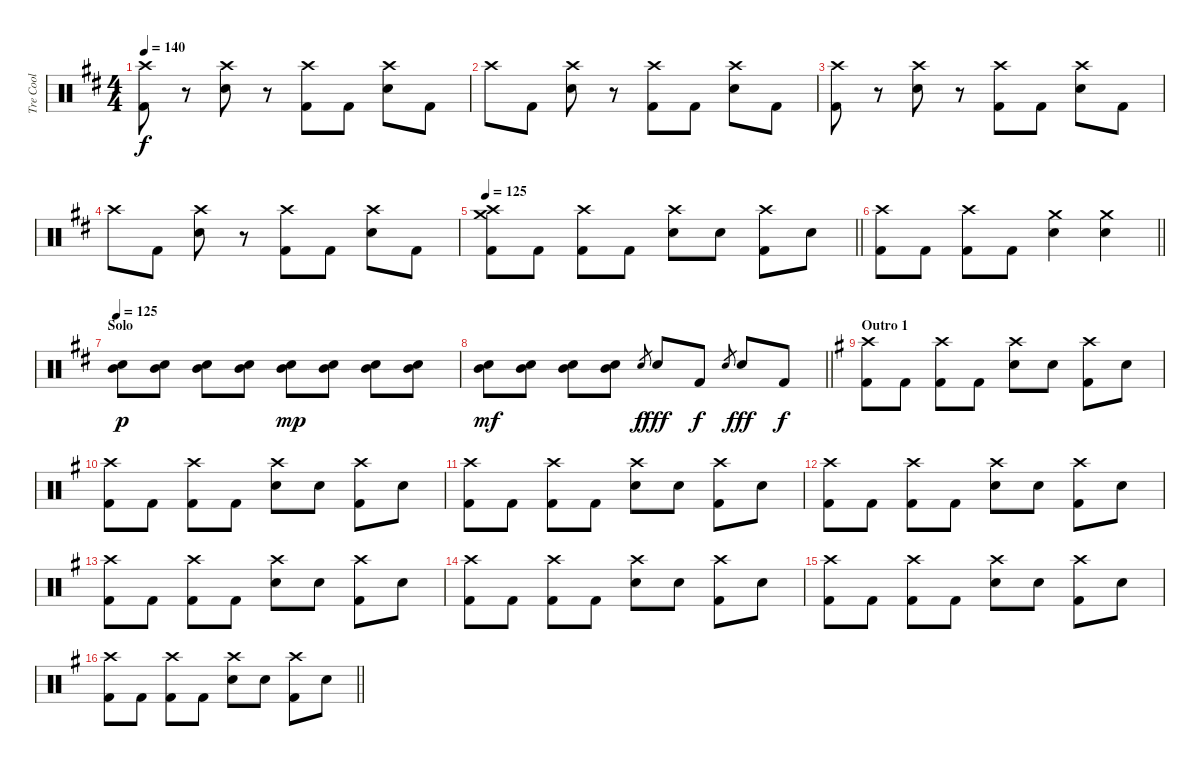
\track ("Tre Cool" "Tre Cool") {instrument percussion}
\staff {score}
\articulation defaults
\ts (4 4)
\tempo 140
\clef neutral
\ks d
("Crash high (hit)" "Kick (hit) 2").8{dy f} r.8 ("Crash high (hit)" "Snare (hit) 2").8 r.8 ("Crash high (hit)" "Kick (hit) 2").8 "Kick (hit) 2".8 ("Crash high (hit)" "Snare (hit) 2").8 "Kick (hit) 2".8 |
"Crash high (hit)".8 "Kick (hit) 2".8 ("Crash high (hit)" "Snare (hit) 2").8 r.8 ("Crash high (hit)" "Kick (hit) 2").8 "Kick (hit) 2".8 ("Crash high (hit)" "Snare (hit) 2").8 "Kick (hit) 2".8 |
("Crash high (hit)" "Kick (hit) 2").8 r.8 ("Crash high (hit)" "Snare (hit) 2").8 r.8 ("Crash high (hit)" "Kick (hit) 2").8 "Kick (hit) 2".8 ("Crash high (hit)" "Snare (hit) 2").8 "Kick (hit) 2".8 |
"Crash high (hit)".8 "Kick (hit) 2".8 ("Crash high (hit)" "Snare (hit) 2").8 r.8 ("Crash high (hit)" "Kick (hit) 2").8 "Kick (hit) 2".8 ("Crash high (hit)" "Snare (hit) 2").8 "Kick (hit) 2".8 |
\tempo 125
\barLineRight lightlight
("Crash high (hit)" "Crash medium (hit)" "Kick (hit) 2").8 "Kick (hit) 2".8 ("Crash high (hit)" "Kick (hit) 2").8 "Kick (hit) 2".8 ("Crash high (hit)" "Electric Snare (hit)").8 "Electric Snare (hit)".8 ("Crash high (hit)" "Kick (hit) 2").8 "Electric Snare (hit)".8 |
\barLineRight lightlight
("Crash high (hit)" "Kick (hit) 2").8 "Kick (hit) 2".8 ("Crash high (hit)" "Kick (hit) 2").8 "Kick (hit) 2".8 ("Crash medium (hit)" "Electric Snare (hit)").4 ("Crash medium (hit)" "Electric Snare (hit)").4 |
\section ("" "Solo")
\tempo 125
("Mid Tom (hit)" "Electric Snare (hit)").8{dy p} ("Mid Tom (hit)" "Electric Snare (hit)").8 ("Mid Tom (hit)" "Electric Snare (hit)").8 ("Mid Tom (hit)" "Electric Snare (hit)").8 ("Mid Tom (hit)" "Electric Snare (hit)").8{dy mp} ("Mid Tom (hit)" "Electric Snare (hit)").8 ("Mid Tom (hit)" "Electric Snare (hit)").8 ("Mid Tom (hit)" "Electric Snare (hit)").8 |
\barLineRight lightlight
("Mid Tom (hit)" "Electric Snare (hit)").8{dy mf} ("Mid Tom (hit)" "Electric Snare (hit)").8 ("Mid Tom (hit)" "Electric Snare (hit)").8 ("Mid Tom (hit)" "Electric Snare (hit)").8 "Electric Snare (hit)"{h}.8{gr dy f} "Electric Snare (hit)".8{dy fff} "Kick (hit) 2".8{dy f} "Electric Snare (hit)"{h}.8{gr} "Electric Snare (hit)".8{dy fff} "Kick (hit) 2".8{dy f} |
\section ("" "Outro 1")
\ks g
("Crash high (hit)" "Kick (hit) 2").8 "Kick (hit) 2".8 ("Crash high (hit)" "Kick (hit) 2").8 "Kick (hit) 2".8 ("Crash high (hit)" "Electric Snare (hit)").8 "Electric Snare (hit)".8 ("Crash high (hit)" "Kick (hit) 2").8 "Electric Snare (hit)".8 |
("Crash high (hit)" "Kick (hit) 2").8 "Kick (hit) 2".8 ("Crash high (hit)" "Kick (hit) 2").8 "Kick (hit) 2".8 ("Crash high (hit)" "Electric Snare (hit)").8 "Electric Snare (hit)".8 ("Crash high (hit)" "Kick (hit) 2").8 "Electric Snare (hit)".8 |
("Crash high (hit)" "Kick (hit) 2").8 "Kick (hit) 2".8 ("Crash high (hit)" "Kick (hit) 2").8 "Kick (hit) 2".8 ("Crash high (hit)" "Electric Snare (hit)").8 "Electric Snare (hit)".8 ("Crash high (hit)" "Kick (hit) 2").8 "Electric Snare (hit)".8 |
("Crash high (hit)" "Kick (hit) 2").8 "Kick (hit) 2".8 ("Crash high (hit)" "Kick (hit) 2").8 "Kick (hit) 2".8 ("Crash high (hit)" "Electric Snare (hit)").8 "Electric Snare (hit)".8 ("Crash high (hit)" "Kick (hit) 2").8 "Electric Snare (hit)".8 |
("Crash high (hit)" "Kick (hit) 2").8 "Kick (hit) 2".8 ("Crash high (hit)" "Kick (hit) 2").8 "Kick (hit) 2".8 ("Crash high (hit)" "Electric Snare (hit)").8 "Electric Snare (hit)".8 ("Crash high (hit)" "Kick (hit) 2").8 "Electric Snare (hit)".8 |
("Crash high (hit)" "Kick (hit) 2").8 "Kick (hit) 2".8 ("Crash high (hit)" "Kick (hit) 2").8 "Kick (hit) 2".8 ("Crash high (hit)" "Electric Snare (hit)").8 "Electric Snare (hit)".8 ("Crash high (hit)" "Kick (hit) 2").8 "Electric Snare (hit)".8 |
("Crash high (hit)" "Kick (hit) 2").8 "Kick (hit) 2".8 ("Crash high (hit)" "Kick (hit) 2").8 "Kick (hit) 2".8 ("Crash high (hit)" "Electric Snare (hit)").8 "Electric Snare (hit)".8 ("Crash high (hit)" "Kick (hit) 2").8 "Electric Snare (hit)".8 |
\barLineRight lightlight
("Crash high (hit)" "Kick (hit) 2").8 "Kick (hit) 2".8 ("Crash high (hit)" "Kick (hit) 2").8 "Kick (hit) 2".8 ("Crash high (hit)" "Electric Snare (hit)").8 "Electric Snare (hit)".8 ("Crash high (hit)" "Kick (hit) 2").8 "Electric Snare (hit)".8
